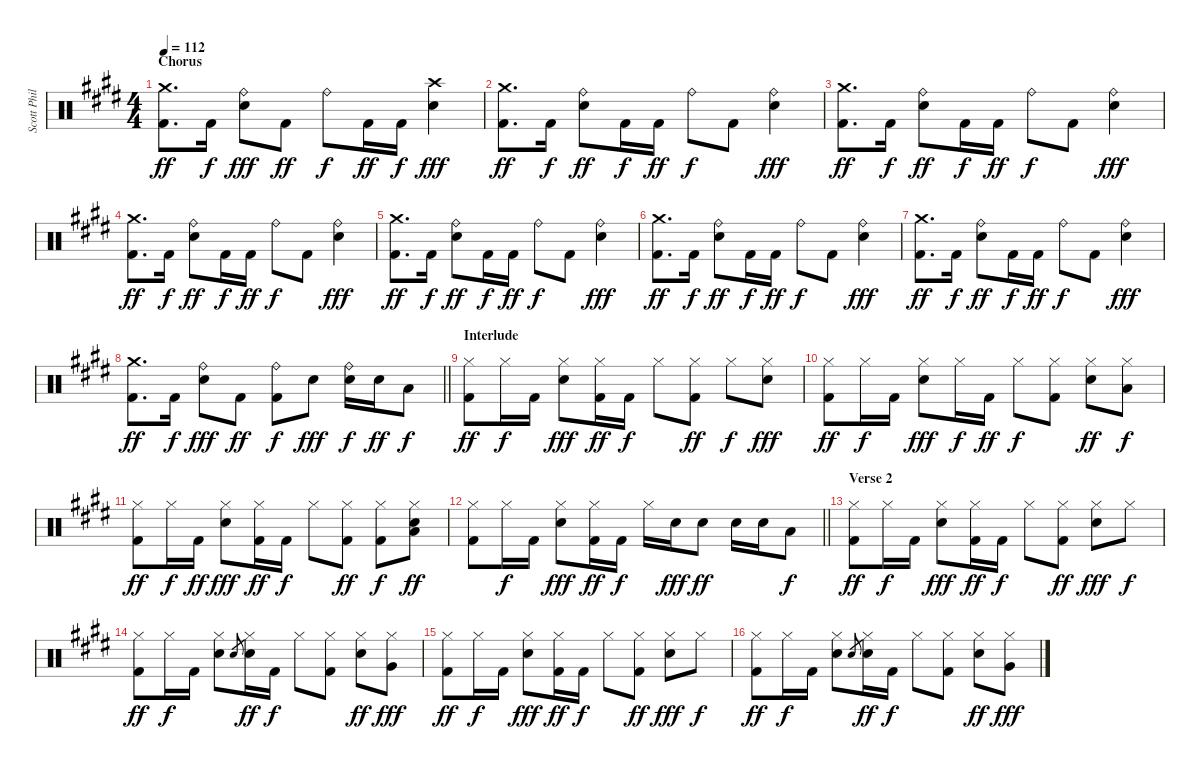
\track ("Scott Phillips" "Scott Phil") {instrument percussion}
\staff {score}
\articulation defaults
\ts (4 4)
\section ("" "Chorus")
\tempo 112
\clef neutral
\ks c#minor
("Crash medium (hit)" "Kick (hit) 2").8{d dy ff} "Kick (hit) 2".16{dy f} ("Ride (bell)" "Electric Snare (hit)").8{dy fff} "Kick (hit) 2".8{dy ff} "Ride (bell)".8{dy f} "Kick (hit) 2".16{dy ff} "Kick (hit) 2".16{dy f} ("Crash high (hit)" "Electric Snare (hit)").4{dy fff} |
("Crash medium (hit)" "Kick (hit) 2").8{d dy ff} "Kick (hit) 2".16{dy f} ("Ride (bell)" "Electric Snare (hit)").8{dy ff} "Kick (hit) 2".16{dy f} "Kick (hit) 2".16{dy ff} "Ride (bell)".8{dy f} "Kick (hit) 2".8 ("Ride (bell)" "Electric Snare (hit)").4{dy fff} |
("Crash medium (hit)" "Kick (hit) 2").8{d dy ff} "Kick (hit) 2".16{dy f} ("Ride (bell)" "Electric Snare (hit)").8{dy ff} "Kick (hit) 2".16{dy f} "Kick (hit) 2".16{dy ff} "Ride (bell)".8{dy f} "Kick (hit) 2".8 ("Ride (bell)" "Electric Snare (hit)").4{dy fff} |
("Crash medium (hit)" "Kick (hit) 2").8{d dy ff} "Kick (hit) 2".16{dy f} ("Ride (bell)" "Electric Snare (hit)").8{dy ff} "Kick (hit) 2".16{dy f} "Kick (hit) 2".16{dy ff} "Ride (bell)".8{dy f} "Kick (hit) 2".8 ("Ride (bell)" "Electric Snare (hit)").4{dy fff} |
("Crash medium (hit)" "Kick (hit) 2").8{d dy ff} "Kick (hit) 2".16{dy f} ("Ride (bell)" "Electric Snare (hit)").8{dy ff} "Kick (hit) 2".16{dy f} "Kick (hit) 2".16{dy ff} "Ride (bell)".8{dy f} "Kick (hit) 2".8 ("Ride (bell)" "Electric Snare (hit)").4{dy fff} |
("Crash medium (hit)" "Kick (hit) 2").8{d dy ff} "Kick (hit) 2".16{dy f} ("Ride (bell)" "Electric Snare (hit)").8{dy ff} "Kick (hit) 2".16{dy f} "Kick (hit) 2".16{dy ff} "Ride (bell)".8{dy f} "Kick (hit) 2".8 ("Ride (bell)" "Electric Snare (hit)").4{dy fff} |
("Crash medium (hit)" "Kick (hit) 2").8{d dy ff} "Kick (hit) 2".16{dy f} ("Ride (bell)" "Electric Snare (hit)").8{dy ff} "Kick (hit) 2".16{dy f} "Kick (hit) 2".16{dy ff} "Ride (bell)".8{dy f} "Kick (hit) 2".8 ("Ride (bell)" "Electric Snare (hit)").4{dy fff} |
\barLineRight lightlight
("Crash medium (hit)" "Kick (hit) 2").8{d dy ff} "Kick (hit) 2".16{dy f} ("Ride (bell)" "Electric Snare (hit)").8{dy fff} "Kick (hit) 2".8{dy ff} ("Ride (bell)" "Kick (hit) 2").8{dy f} "Electric Snare (hit)".8{dy fff} ("Ride (bell)" "Electric Snare (hit)").16{dy f} "Electric Snare (hit)".16{dy ff} "Low Floor Tom (hit)".8{dy f} |
\section ("" "Interlude")
("Hi-Hat (closed)" "Kick (hit) 2").8{dy ff} "Hi-Hat (closed)".16{dy f} "Kick (hit) 2".16 ("Hi-Hat (closed)" "Electric Snare (hit)").8{dy fff} ("Hi-Hat (closed)" "Kick (hit) 2").16{dy ff} "Kick (hit) 2".16{dy f} "Hi-Hat (closed)".8 ("Hi-Hat (closed)" "Kick (hit) 2").8{dy ff} "Hi-Hat (closed)".8{dy f} ("Hi-Hat (closed)" "Electric Snare (hit)").8{dy fff} |
("Hi-Hat (closed)" "Kick (hit) 2").8{dy ff} "Hi-Hat (closed)".16{dy f} "Kick (hit) 2".16 ("Hi-Hat (closed)" "Electric Snare (hit)").8{dy fff} "Hi-Hat (closed)".16{dy f} "Kick (hit) 2".16{dy ff} "Hi-Hat (closed)".8{dy f} ("Hi-Hat (closed)" "Kick (hit) 2").8 ("Hi-Hat (closed)" "Electric Snare (hit)").8{dy ff} ("Hi-Hat (closed)" "Low Floor Tom (hit)").8{dy f} |
("Hi-Hat (closed)" "Kick (hit) 2").8{dy ff} "Hi-Hat (closed)".16{dy f} "Kick (hit) 2".16{dy ff} ("Hi-Hat (closed)" "Electric Snare (hit)").8{dy fff} ("Hi-Hat (closed)" "Kick (hit) 2").16{dy ff} "Kick (hit) 2".16{dy f} "Hi-Hat (closed)".8 ("Hi-Hat (closed)" "Kick (hit) 2").8{dy ff} ("Hi-Hat (closed)" "Kick (hit) 2").8{dy f} ("Hi-Hat (closed)" "Electric Snare (hit)" "Low Floor Tom (hit)").8{dy ff} |
\barLineRight lightlight
("Hi-Hat (closed)" "Kick (hit) 2").8 "Hi-Hat (closed)".16{dy f} "Kick (hit) 2".16 ("Hi-Hat (closed)" "Electric Snare (hit)").8{dy fff} ("Hi-Hat (closed)" "Kick (hit) 2").16{dy ff} "Kick (hit) 2".16{dy f} "Hi-Hat (closed)".16 "Electric Snare (hit)".16{dy fff} "Electric Snare (hit)".8{dy ff} "Electric Snare (hit)".16 "Electric Snare (hit)".16 "Low Floor Tom (hit)".8{dy f} |
\section ("" "Verse 2")
("Hi-Hat (closed)" "Kick (hit) 2").8{dy ff} "Hi-Hat (closed)".16{dy f} "Kick (hit) 2".16 ("Hi-Hat (closed)" "Electric Snare (hit)").8{dy fff} ("Hi-Hat (closed)" "Kick (hit) 2").16{dy ff} "Kick (hit) 2".16{dy f} "Hi-Hat (closed)".8 ("Hi-Hat (closed)" "Kick (hit) 2").8{dy ff} ("Hi-Hat (closed)" "Electric Snare (hit)").8{dy fff} "Hi-Hat (closed)".8{dy f} |
("Hi-Hat (closed)" "Kick (hit) 2").8{dy ff} "Hi-Hat (closed)".16{dy f} "Kick (hit) 2".16 ("Hi-Hat (closed)" "Electric Snare (hit)").8 "Electric Snare (hit)".8{gr} ("Hi-Hat (closed)" "Electric Snare (hit)").16{dy ff} "Kick (hit) 2".16{dy f} "Hi-Hat (closed)".8 ("Hi-Hat (closed)" "Kick (hit) 2").8 ("Hi-Hat (closed)" "Electric Snare (hit)").8{dy ff} ("Hi-Hat (closed)" "Very Low Tom (hit)").8{dy fff} |
("Hi-Hat (closed)" "Kick (hit) 2").8{dy ff} "Hi-Hat (closed)".16{dy f} "Kick (hit) 2".16 ("Hi-Hat (closed)" "Electric Snare (hit)").8{dy fff} ("Hi-Hat (closed)" "Kick (hit) 2").16{dy ff} "Kick (hit) 2".16{dy f} "Hi-Hat (closed)".8 ("Hi-Hat (closed)" "Kick (hit) 2").8{dy ff} ("Hi-Hat (closed)" "Electric Snare (hit)").8{dy fff} "Hi-Hat (closed)".8{dy f} |
("Hi-Hat (closed)" "Kick (hit) 2").8{dy ff} "Hi-Hat (closed)".16{dy f} "Kick (hit) 2".16 ("Hi-Hat (closed)" "Electric Snare (hit)").8 "Electric Snare (hit)".8{gr} ("Hi-Hat (closed)" "Electric Snare (hit)").16{dy ff} "Kick (hit) 2".16{dy f} "Hi-Hat (closed)".8 ("Hi-Hat (closed)" "Kick (hit) 2").8 ("Hi-Hat (closed)" "Electric Snare (hit)").8{dy ff} ("Hi-Hat (closed)" "Very Low Tom (hit)").8{dy fff}
